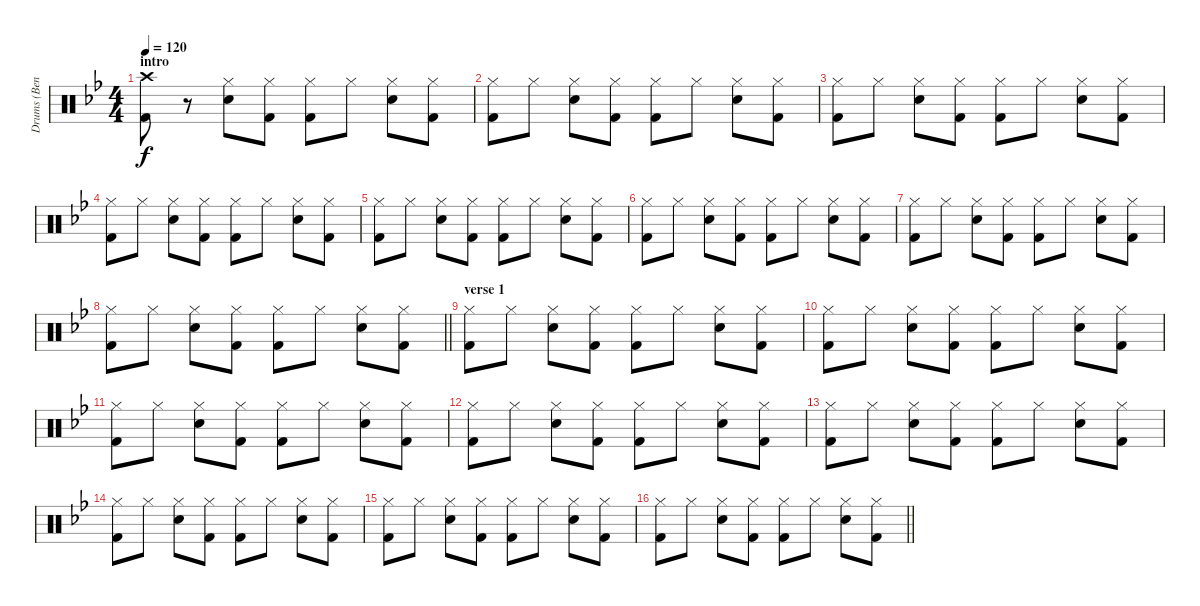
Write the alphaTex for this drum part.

\track ("Drums (Bengerg)" "Drums (Ben") {instrument percussion}
\staff {score}
\articulation defaults
\ts (4 4)
\section ("" "intro")
\tempo 120
\clef neutral
\ks bb
("Crash high (hit)" "Kick (hit) 2").8{dy f} r.8 ("Hi-Hat (closed)" "Electric Snare (hit)").8 ("Hi-Hat (closed)" "Kick (hit) 2").8 ("Hi-Hat (closed)" "Kick (hit) 2").8 "Hi-Hat (closed)".8 ("Hi-Hat (closed)" "Electric Snare (hit)").8 ("Hi-Hat (closed)" "Kick (hit) 2").8 |
("Hi-Hat (closed)" "Kick (hit) 2").8 "Hi-Hat (closed)".8 ("Hi-Hat (closed)" "Electric Snare (hit)").8 ("Hi-Hat (closed)" "Kick (hit) 2").8 ("Hi-Hat (closed)" "Kick (hit) 2").8 "Hi-Hat (closed)".8 ("Hi-Hat (closed)" "Electric Snare (hit)").8 ("Hi-Hat (closed)" "Kick (hit) 2").8 |
("Hi-Hat (closed)" "Kick (hit) 2").8 "Hi-Hat (closed)".8 ("Hi-Hat (closed)" "Electric Snare (hit)").8 ("Hi-Hat (closed)" "Kick (hit) 2").8 ("Hi-Hat (closed)" "Kick (hit) 2").8 "Hi-Hat (closed)".8 ("Hi-Hat (closed)" "Electric Snare (hit)").8 ("Hi-Hat (closed)" "Kick (hit) 2").8 |
("Hi-Hat (closed)" "Kick (hit) 2").8 "Hi-Hat (closed)".8 ("Hi-Hat (closed)" "Electric Snare (hit)").8 ("Hi-Hat (closed)" "Kick (hit) 2").8 ("Hi-Hat (closed)" "Kick (hit) 2").8 "Hi-Hat (closed)".8 ("Hi-Hat (closed)" "Electric Snare (hit)").8 ("Hi-Hat (closed)" "Kick (hit) 2").8 |
("Hi-Hat (closed)" "Kick (hit) 2").8 "Hi-Hat (closed)".8 ("Hi-Hat (closed)" "Electric Snare (hit)").8 ("Hi-Hat (closed)" "Kick (hit) 2").8 ("Hi-Hat (closed)" "Kick (hit) 2").8 "Hi-Hat (closed)".8 ("Hi-Hat (closed)" "Electric Snare (hit)").8 ("Hi-Hat (closed)" "Kick (hit) 2").8 |
("Hi-Hat (closed)" "Kick (hit) 2").8 "Hi-Hat (closed)".8 ("Hi-Hat (closed)" "Electric Snare (hit)").8 ("Hi-Hat (closed)" "Kick (hit) 2").8 ("Hi-Hat (closed)" "Kick (hit) 2").8 "Hi-Hat (closed)".8 ("Hi-Hat (closed)" "Electric Snare (hit)").8 ("Hi-Hat (closed)" "Kick (hit) 2").8 |
("Hi-Hat (closed)" "Kick (hit) 2").8 "Hi-Hat (closed)".8 ("Hi-Hat (closed)" "Electric Snare (hit)").8 ("Hi-Hat (closed)" "Kick (hit) 2").8 ("Hi-Hat (closed)" "Kick (hit) 2").8 "Hi-Hat (closed)".8 ("Hi-Hat (closed)" "Electric Snare (hit)").8 ("Hi-Hat (closed)" "Kick (hit) 2").8 |
\barLineRight lightlight
("Hi-Hat (closed)" "Kick (hit) 2").8 "Hi-Hat (closed)".8 ("Hi-Hat (closed)" "Electric Snare (hit)").8 ("Hi-Hat (closed)" "Kick (hit) 2").8 ("Hi-Hat (closed)" "Kick (hit) 2").8 "Hi-Hat (closed)".8 ("Hi-Hat (closed)" "Electric Snare (hit)").8 ("Hi-Hat (closed)" "Kick (hit) 2").8 |
\section ("" "verse 1")
("Hi-Hat (closed)" "Kick (hit) 2").8 "Hi-Hat (closed)".8 ("Hi-Hat (closed)" "Electric Snare (hit)").8 ("Hi-Hat (closed)" "Kick (hit) 2").8 ("Hi-Hat (closed)" "Kick (hit) 2").8 "Hi-Hat (closed)".8 ("Hi-Hat (closed)" "Electric Snare (hit)").8 ("Hi-Hat (closed)" "Kick (hit) 2").8 |
("Hi-Hat (closed)" "Kick (hit) 2").8 "Hi-Hat (closed)".8 ("Hi-Hat (closed)" "Electric Snare (hit)").8 ("Hi-Hat (closed)" "Kick (hit) 2").8 ("Hi-Hat (closed)" "Kick (hit) 2").8 "Hi-Hat (closed)".8 ("Hi-Hat (closed)" "Electric Snare (hit)").8 ("Hi-Hat (closed)" "Kick (hit) 2").8 |
("Hi-Hat (closed)" "Kick (hit) 2").8 "Hi-Hat (closed)".8 ("Hi-Hat (closed)" "Electric Snare (hit)").8 ("Hi-Hat (closed)" "Kick (hit) 2").8 ("Hi-Hat (closed)" "Kick (hit) 2").8 "Hi-Hat (closed)".8 ("Hi-Hat (closed)" "Electric Snare (hit)").8 ("Hi-Hat (closed)" "Kick (hit) 2").8 |
("Hi-Hat (closed)" "Kick (hit) 2").8 "Hi-Hat (closed)".8 ("Hi-Hat (closed)" "Electric Snare (hit)").8 ("Hi-Hat (closed)" "Kick (hit) 2").8 ("Hi-Hat (closed)" "Kick (hit) 2").8 "Hi-Hat (closed)".8 ("Hi-Hat (closed)" "Electric Snare (hit)").8 ("Hi-Hat (closed)" "Kick (hit) 2").8 |
("Hi-Hat (closed)" "Kick (hit) 2").8 "Hi-Hat (closed)".8 ("Hi-Hat (closed)" "Electric Snare (hit)").8 ("Hi-Hat (closed)" "Kick (hit) 2").8 ("Hi-Hat (closed)" "Kick (hit) 2").8 "Hi-Hat (closed)".8 ("Hi-Hat (closed)" "Electric Snare (hit)").8 ("Hi-Hat (closed)" "Kick (hit) 2").8 |
("Hi-Hat (closed)" "Kick (hit) 2").8 "Hi-Hat (closed)".8 ("Hi-Hat (closed)" "Electric Snare (hit)").8 ("Hi-Hat (closed)" "Kick (hit) 2").8 ("Hi-Hat (closed)" "Kick (hit) 2").8 "Hi-Hat (closed)".8 ("Hi-Hat (closed)" "Electric Snare (hit)").8 ("Hi-Hat (closed)" "Kick (hit) 2").8 |
("Hi-Hat (closed)" "Kick (hit) 2").8 "Hi-Hat (closed)".8 ("Hi-Hat (closed)" "Electric Snare (hit)").8 ("Hi-Hat (closed)" "Kick (hit) 2").8 ("Hi-Hat (closed)" "Kick (hit) 2").8 "Hi-Hat (closed)".8 ("Hi-Hat (closed)" "Electric Snare (hit)").8 ("Hi-Hat (closed)" "Kick (hit) 2").8 |
\barLineRight lightlight
("Hi-Hat (closed)" "Kick (hit) 2").8 "Hi-Hat (closed)".8 ("Hi-Hat (closed)" "Electric Snare (hit)").8 ("Hi-Hat (closed)" "Kick (hit) 2").8 ("Hi-Hat (closed)" "Kick (hit) 2").8 "Hi-Hat (closed)".8 ("Hi-Hat (closed)" "Electric Snare (hit)").8 ("Hi-Hat (closed)" "Kick (hit) 2").8
